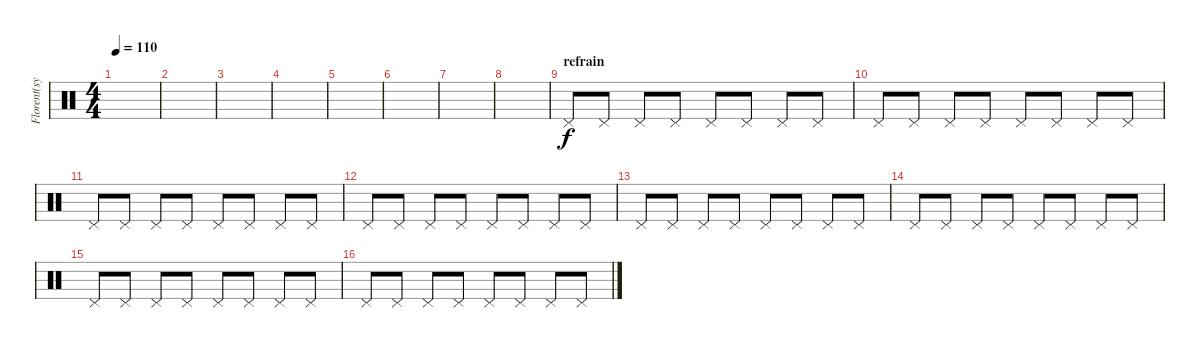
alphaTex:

\track ("Florent(symbales)" "Florent(sy") {instrument percussion}
\staff {score}
\articulation defaults
\ts (4 4)
\tempo 110
\clef neutral
\ks c
|
|
|
|
|
|
|
|
\section ("" "refrain")
"Pedal Hi-Hat (hit)".8 "Pedal Hi-Hat (hit)".8 "Pedal Hi-Hat (hit)".8 "Pedal Hi-Hat (hit)".8 "Pedal Hi-Hat (hit)".8 "Pedal Hi-Hat (hit)".8 "Pedal Hi-Hat (hit)".8 "Pedal Hi-Hat (hit)".8 |
"Pedal Hi-Hat (hit)".8 "Pedal Hi-Hat (hit)".8 "Pedal Hi-Hat (hit)".8 "Pedal Hi-Hat (hit)".8 "Pedal Hi-Hat (hit)".8 "Pedal Hi-Hat (hit)".8 "Pedal Hi-Hat (hit)".8 "Pedal Hi-Hat (hit)".8 |
"Pedal Hi-Hat (hit)".8 "Pedal Hi-Hat (hit)".8 "Pedal Hi-Hat (hit)".8 "Pedal Hi-Hat (hit)".8 "Pedal Hi-Hat (hit)".8 "Pedal Hi-Hat (hit)".8 "Pedal Hi-Hat (hit)".8 "Pedal Hi-Hat (hit)".8 |
"Pedal Hi-Hat (hit)".8 "Pedal Hi-Hat (hit)".8 "Pedal Hi-Hat (hit)".8 "Pedal Hi-Hat (hit)".8 "Pedal Hi-Hat (hit)".8 "Pedal Hi-Hat (hit)".8 "Pedal Hi-Hat (hit)".8 "Pedal Hi-Hat (hit)".8 |
"Pedal Hi-Hat (hit)".8 "Pedal Hi-Hat (hit)".8 "Pedal Hi-Hat (hit)".8 "Pedal Hi-Hat (hit)".8 "Pedal Hi-Hat (hit)".8 "Pedal Hi-Hat (hit)".8 "Pedal Hi-Hat (hit)".8 "Pedal Hi-Hat (hit)".8 |
"Pedal Hi-Hat (hit)".8 "Pedal Hi-Hat (hit)".8 "Pedal Hi-Hat (hit)".8 "Pedal Hi-Hat (hit)".8 "Pedal Hi-Hat (hit)".8 "Pedal Hi-Hat (hit)".8 "Pedal Hi-Hat (hit)".8 "Pedal Hi-Hat (hit)".8 |
"Pedal Hi-Hat (hit)".8 "Pedal Hi-Hat (hit)".8 "Pedal Hi-Hat (hit)".8 "Pedal Hi-Hat (hit)".8 "Pedal Hi-Hat (hit)".8 "Pedal Hi-Hat (hit)".8 "Pedal Hi-Hat (hit)".8 "Pedal Hi-Hat (hit)".8 |
"Pedal Hi-Hat (hit)".8 "Pedal Hi-Hat (hit)".8 "Pedal Hi-Hat (hit)".8 "Pedal Hi-Hat (hit)".8 "Pedal Hi-Hat (hit)".8 "Pedal Hi-Hat (hit)".8 "Pedal Hi-Hat (hit)".8 "Pedal Hi-Hat (hit)".8
